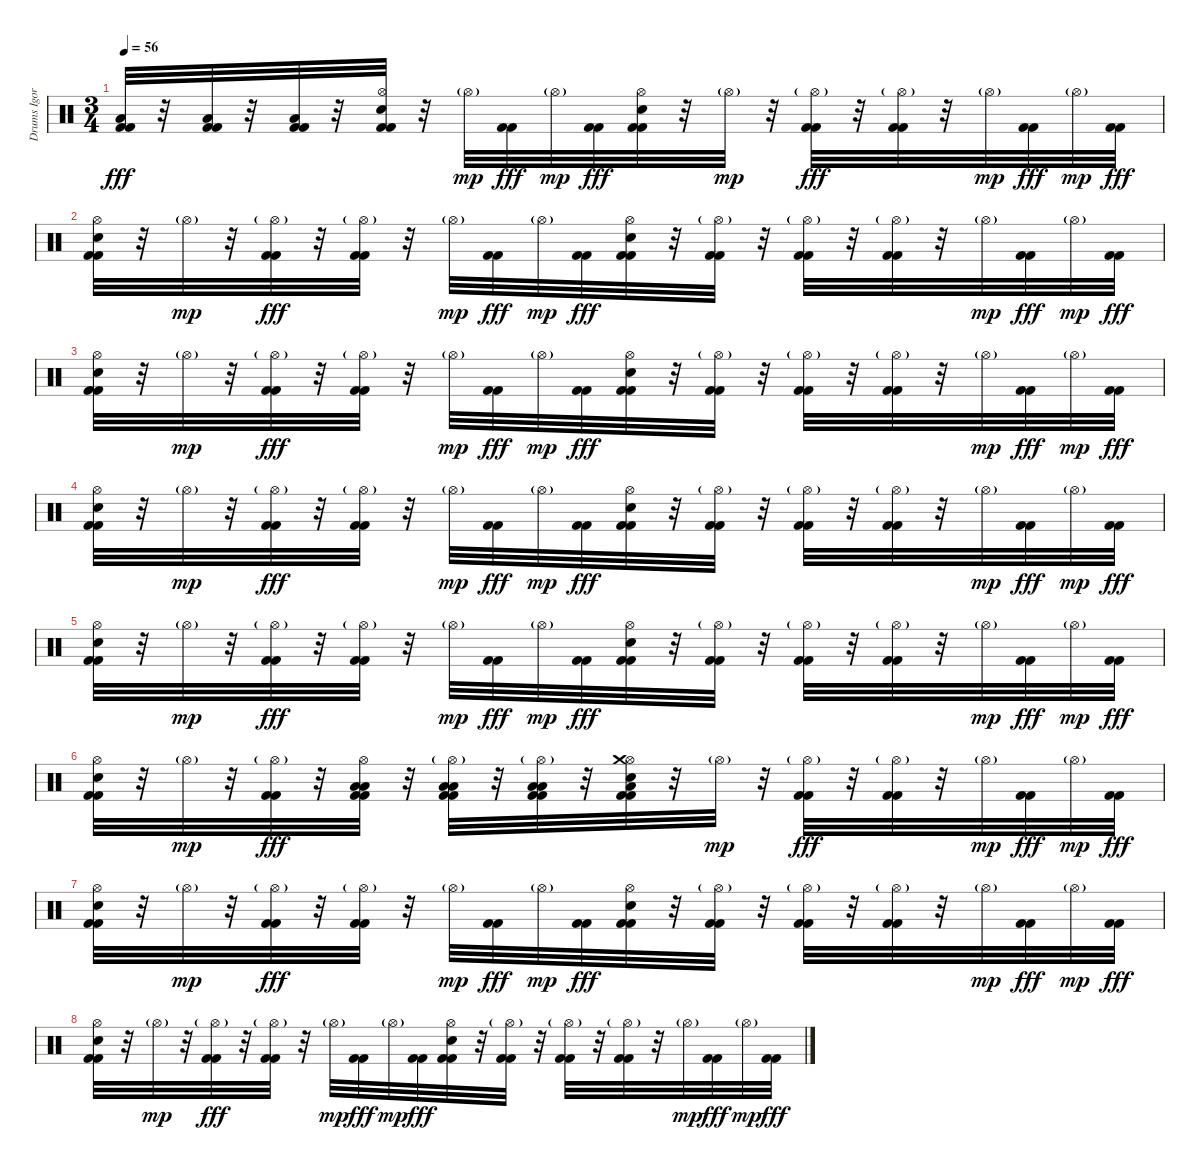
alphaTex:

\track ("Drums Igor" "Drums Igor") {instrument percussion}
\staff {score}
\articulation defaults
\ts (3 4)
\tempo 56
\clef neutral
\ks c
("Low Floor Tom (hit)" "Kick (hit) 2" "Kick (hit) 2").32{dy fff} r.32 ("Low Floor Tom (hit)" "Kick (hit) 2" "Kick (hit) 2").32 r.32 ("Low Floor Tom (hit)" "Kick (hit) 2" "Kick (hit) 2").32 r.32 ("Hi-Hat (open)" "Electric Snare (hit)" "Kick (hit) 2" "Kick (hit) 2").32 r.32 "Hi-Hat (open)"{g}.32{dy mp} ("Kick (hit) 2" "Kick (hit) 2").32{dy fff} "Hi-Hat (open)"{g}.32{dy mp} ("Kick (hit) 2" "Kick (hit) 2").32{dy fff} ("Hi-Hat (open)" "Electric Snare (hit)" "Kick (hit) 2" "Kick (hit) 2").32 r.32 "Hi-Hat (open)"{g}.32{dy mp} r.32 ("Hi-Hat (open)"{g} "Kick (hit) 2" "Kick (hit) 2").32{dy fff} r.32 ("Hi-Hat (open)"{g} "Kick (hit) 2" "Kick (hit) 2").32 r.32 "Hi-Hat (open)"{g}.32{dy mp} ("Kick (hit) 2" "Kick (hit) 2").32{dy fff} "Hi-Hat (open)"{g}.32{dy mp} ("Kick (hit) 2" "Kick (hit) 2").32{dy fff} |
("Hi-Hat (open)" "Electric Snare (hit)" "Kick (hit) 2" "Kick (hit) 2").32 r.32 "Hi-Hat (open)"{g}.32{dy mp} r.32 ("Hi-Hat (open)"{g} "Kick (hit) 2" "Kick (hit) 2").32{dy fff} r.32 ("Hi-Hat (open)"{g} "Kick (hit) 2" "Kick (hit) 2").32 r.32 "Hi-Hat (open)"{g}.32{dy mp} ("Kick (hit) 2" "Kick (hit) 2").32{dy fff} "Hi-Hat (open)"{g}.32{dy mp} ("Kick (hit) 2" "Kick (hit) 2").32{dy fff} ("Hi-Hat (open)" "Electric Snare (hit)" "Kick (hit) 2" "Kick (hit) 2").32 r.32 ("Hi-Hat (open)"{g} "Kick (hit) 2" "Kick (hit) 2").32 r.32 ("Hi-Hat (open)"{g} "Kick (hit) 2" "Kick (hit) 2").32 r.32 ("Hi-Hat (open)"{g} "Kick (hit) 2" "Kick (hit) 2").32 r.32 "Hi-Hat (open)"{g}.32{dy mp} ("Kick (hit) 2" "Kick (hit) 2").32{dy fff} "Hi-Hat (open)"{g}.32{dy mp} ("Kick (hit) 2" "Kick (hit) 2").32{dy fff} |
("Hi-Hat (open)" "Electric Snare (hit)" "Kick (hit) 2" "Kick (hit) 2").32 r.32 "Hi-Hat (open)"{g}.32{dy mp} r.32 ("Hi-Hat (open)"{g} "Kick (hit) 2" "Kick (hit) 2").32{dy fff} r.32 ("Hi-Hat (open)"{g} "Kick (hit) 2" "Kick (hit) 2").32 r.32 "Hi-Hat (open)"{g}.32{dy mp} ("Kick (hit) 2" "Kick (hit) 2").32{dy fff} "Hi-Hat (open)"{g}.32{dy mp} ("Kick (hit) 2" "Kick (hit) 2").32{dy fff} ("Hi-Hat (open)" "Electric Snare (hit)" "Kick (hit) 2" "Kick (hit) 2").32 r.32 ("Hi-Hat (open)"{g} "Kick (hit) 2" "Kick (hit) 2").32 r.32 ("Hi-Hat (open)"{g} "Kick (hit) 2" "Kick (hit) 2").32 r.32 ("Hi-Hat (open)"{g} "Kick (hit) 2" "Kick (hit) 2").32 r.32 "Hi-Hat (open)"{g}.32{dy mp} ("Kick (hit) 2" "Kick (hit) 2").32{dy fff} "Hi-Hat (open)"{g}.32{dy mp} ("Kick (hit) 2" "Kick (hit) 2").32{dy fff} |
("Hi-Hat (open)" "Electric Snare (hit)" "Kick (hit) 2" "Kick (hit) 2").32 r.32 "Hi-Hat (open)"{g}.32{dy mp} r.32 ("Hi-Hat (open)"{g} "Kick (hit) 2" "Kick (hit) 2").32{dy fff} r.32 ("Hi-Hat (open)"{g} "Kick (hit) 2" "Kick (hit) 2").32 r.32 "Hi-Hat (open)"{g}.32{dy mp} ("Kick (hit) 2" "Kick (hit) 2").32{dy fff} "Hi-Hat (open)"{g}.32{dy mp} ("Kick (hit) 2" "Kick (hit) 2").32{dy fff} ("Hi-Hat (open)" "Electric Snare (hit)" "Kick (hit) 2" "Kick (hit) 2").32 r.32 ("Hi-Hat (open)"{g} "Kick (hit) 2" "Kick (hit) 2").32 r.32 ("Hi-Hat (open)"{g} "Kick (hit) 2" "Kick (hit) 2").32 r.32 ("Hi-Hat (open)"{g} "Kick (hit) 2" "Kick (hit) 2").32 r.32 "Hi-Hat (open)"{g}.32{dy mp} ("Kick (hit) 2" "Kick (hit) 2").32{dy fff} "Hi-Hat (open)"{g}.32{dy mp} ("Kick (hit) 2" "Kick (hit) 2").32{dy fff} |
("Hi-Hat (open)" "Electric Snare (hit)" "Kick (hit) 2" "Kick (hit) 2").32 r.32 "Hi-Hat (open)"{g}.32{dy mp} r.32 ("Hi-Hat (open)"{g} "Kick (hit) 2" "Kick (hit) 2").32{dy fff} r.32 ("Hi-Hat (open)"{g} "Kick (hit) 2" "Kick (hit) 2").32 r.32 "Hi-Hat (open)"{g}.32{dy mp} ("Kick (hit) 2" "Kick (hit) 2").32{dy fff} "Hi-Hat (open)"{g}.32{dy mp} ("Kick (hit) 2" "Kick (hit) 2").32{dy fff} ("Hi-Hat (open)" "Electric Snare (hit)" "Kick (hit) 2" "Kick (hit) 2").32 r.32 ("Hi-Hat (open)"{g} "Kick (hit) 2" "Kick (hit) 2").32 r.32 ("Hi-Hat (open)"{g} "Kick (hit) 2" "Kick (hit) 2").32 r.32 ("Hi-Hat (open)"{g} "Kick (hit) 2" "Kick (hit) 2").32 r.32 "Hi-Hat (open)"{g}.32{dy mp} ("Kick (hit) 2" "Kick (hit) 2").32{dy fff} "Hi-Hat (open)"{g}.32{dy mp} ("Kick (hit) 2" "Kick (hit) 2").32{dy fff} |
("Hi-Hat (open)" "Electric Snare (hit)" "Kick (hit) 2" "Kick (hit) 2").32 r.32 "Hi-Hat (open)"{g}.32{dy mp} r.32 ("Hi-Hat (open)"{g} "Kick (hit) 2" "Kick (hit) 2").32{dy fff} r.32 ("Hi-Hat (open)" "Low Floor Tom (hit)" "Low Floor Tom (hit)" "Kick (hit) 2" "Kick (hit) 2").32 r.32 ("Hi-Hat (open)"{g} "Low Floor Tom (hit)" "Low Floor Tom (hit)" "Kick (hit) 2" "Kick (hit) 2").32 r.32 ("Hi-Hat (open)"{g} "Low Floor Tom (hit)" "Low Floor Tom (hit)" "Kick (hit) 2" "Kick (hit) 2").32 r.32 ("Hi-Hat (open)" "Crash medium (hit)" "Electric Snare (hit)" "Low Floor Tom (hit)" "Kick (hit) 2" "Kick (hit) 2").32 r.32 "Hi-Hat (open)"{g}.32{dy mp} r.32 ("Hi-Hat (open)"{g} "Kick (hit) 2" "Kick (hit) 2").32{dy fff} r.32 ("Hi-Hat (open)"{g} "Kick (hit) 2" "Kick (hit) 2").32 r.32 "Hi-Hat (open)"{g}.32{dy mp} ("Kick (hit) 2" "Kick (hit) 2").32{dy fff} "Hi-Hat (open)"{g}.32{dy mp} ("Kick (hit) 2" "Kick (hit) 2").32{dy fff} |
("Hi-Hat (open)" "Electric Snare (hit)" "Kick (hit) 2" "Kick (hit) 2").32 r.32 "Hi-Hat (open)"{g}.32{dy mp} r.32 ("Hi-Hat (open)"{g} "Kick (hit) 2" "Kick (hit) 2").32{dy fff} r.32 ("Hi-Hat (open)"{g} "Kick (hit) 2" "Kick (hit) 2").32 r.32 "Hi-Hat (open)"{g}.32{dy mp} ("Kick (hit) 2" "Kick (hit) 2").32{dy fff} "Hi-Hat (open)"{g}.32{dy mp} ("Kick (hit) 2" "Kick (hit) 2").32{dy fff} ("Hi-Hat (open)" "Electric Snare (hit)" "Kick (hit) 2" "Kick (hit) 2").32 r.32 ("Hi-Hat (open)"{g} "Kick (hit) 2" "Kick (hit) 2").32 r.32 ("Hi-Hat (open)"{g} "Kick (hit) 2" "Kick (hit) 2").32 r.32 ("Hi-Hat (open)"{g} "Kick (hit) 2" "Kick (hit) 2").32 r.32 "Hi-Hat (open)"{g}.32{dy mp} ("Kick (hit) 2" "Kick (hit) 2").32{dy fff} "Hi-Hat (open)"{g}.32{dy mp} ("Kick (hit) 2" "Kick (hit) 2").32{dy fff} |
("Hi-Hat (open)" "Electric Snare (hit)" "Kick (hit) 2" "Kick (hit) 2").32 r.32 "Hi-Hat (open)"{g}.32{dy mp} r.32 ("Hi-Hat (open)"{g} "Kick (hit) 2" "Kick (hit) 2").32{dy fff} r.32 ("Hi-Hat (open)"{g} "Kick (hit) 2" "Kick (hit) 2").32 r.32 "Hi-Hat (open)"{g}.32{dy mp} ("Kick (hit) 2" "Kick (hit) 2").32{dy fff} "Hi-Hat (open)"{g}.32{dy mp} ("Kick (hit) 2" "Kick (hit) 2").32{dy fff} ("Hi-Hat (open)" "Electric Snare (hit)" "Kick (hit) 2" "Kick (hit) 2").32 r.32 ("Hi-Hat (open)"{g} "Kick (hit) 2" "Kick (hit) 2").32 r.32 ("Hi-Hat (open)"{g} "Kick (hit) 2" "Kick (hit) 2").32 r.32 ("Hi-Hat (open)"{g} "Kick (hit) 2" "Kick (hit) 2").32 r.32 "Hi-Hat (open)"{g}.32{dy mp} ("Kick (hit) 2" "Kick (hit) 2").32{dy fff} "Hi-Hat (open)"{g}.32{dy mp} ("Kick (hit) 2" "Kick (hit) 2").32{dy fff}
